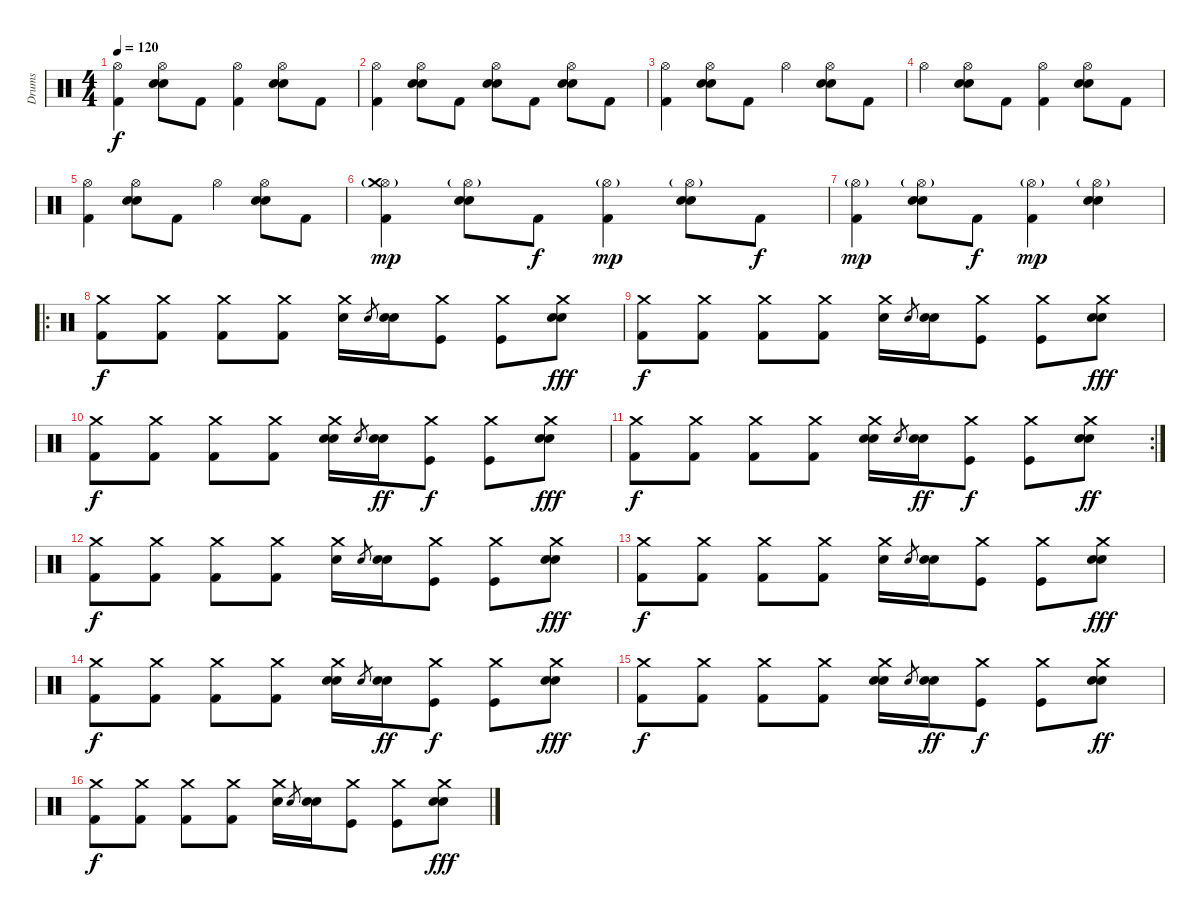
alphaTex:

\track ("Drums" "Drums") {instrument percussion}
\staff {score}
\articulation defaults
\ts (4 4)
\tempo 120
\clef neutral
\ks c
("Hi-Hat (open)" "Kick (hit) 2").4{dy f} ("Electric Snare (hit)" "Snare (hit) 2" "Hi-Hat (open)").8 "Kick (hit) 2".8 ("Hi-Hat (open)" "Kick (hit) 2").4 ("Electric Snare (hit)" "Snare (hit) 2" "Hi-Hat (open)").8 "Kick (hit) 2".8 |
("Hi-Hat (open)" "Kick (hit) 2").4 ("Electric Snare (hit)" "Snare (hit) 2" "Hi-Hat (open)").8 "Kick (hit) 2".8 ("Electric Snare (hit)" "Snare (hit) 2" "Hi-Hat (open)").8 "Kick (hit) 2".8 ("Electric Snare (hit)" "Snare (hit) 2" "Hi-Hat (open)").8 "Kick (hit) 2".8 |
("Hi-Hat (open)" "Kick (hit) 2").4 ("Electric Snare (hit)" "Snare (hit) 2" "Hi-Hat (open)").8 "Kick (hit) 2".8 "Hi-Hat (open)".4 ("Electric Snare (hit)" "Snare (hit) 2" "Hi-Hat (open)").8 "Kick (hit) 2".8 |
"Hi-Hat (open)".4 ("Hi-Hat (open)" "Electric Snare (hit)" "Snare (hit) 2").8 "Kick (hit) 2".8 ("Hi-Hat (open)" "Kick (hit) 2").4 ("Electric Snare (hit)" "Snare (hit) 2" "Hi-Hat (open)").8 "Kick (hit) 2".8 |
("Hi-Hat (open)" "Kick (hit) 2").4 ("Electric Snare (hit)" "Snare (hit) 2" "Hi-Hat (open)").8 "Kick (hit) 2".8 "Hi-Hat (open)".4 ("Electric Snare (hit)" "Snare (hit) 2" "Hi-Hat (open)").8 "Kick (hit) 2".8 |
("Hi-Hat (open)"{g} "Crash medium (hit)" "Kick (hit) 2").4{dy mp} ("Electric Snare (hit)" "Snare (hit) 2" "Hi-Hat (open)"{g}).8 "Kick (hit) 2".8{dy f} ("Hi-Hat (open)"{g} "Kick (hit) 2").4{dy mp} ("Electric Snare (hit)" "Snare (hit) 2" "Hi-Hat (open)"{g}).8 "Kick (hit) 2".8{dy f} |
("Hi-Hat (open)"{g} "Kick (hit) 2").4{dy mp} ("Electric Snare (hit)" "Snare (hit) 2" "Hi-Hat (open)"{g}).8 "Kick (hit) 2".8{dy f} ("Hi-Hat (open)"{g} "Kick (hit) 2").4{dy mp} ("Electric Snare (hit)" "Snare (hit) 2" "Hi-Hat (open)"{g}).4 |
\ro
("Crash medium (hit)" "Kick (hit) 2").8{dy f} ("Crash medium (hit)" "Kick (hit) 2").8 ("Crash medium (hit)" "Kick (hit) 2").8 ("Crash medium (hit)" "Kick (hit) 2").8 ("Crash medium (hit)" "Electric Snare (hit)").16 "Electric Snare (hit)".8{gr} ("Electric Snare (hit)" "Snare (hit) 2").16 ("Crash medium (hit)" "Kick (hit)").8 ("Crash medium (hit)" "Kick (hit)").8 ("Crash medium (hit)" "Electric Snare (hit)" "Snare (hit) 2").8{dy fff} |
("Crash medium (hit)" "Kick (hit) 2").8{dy f} ("Crash medium (hit)" "Kick (hit) 2").8 ("Crash medium (hit)" "Kick (hit) 2").8 ("Crash medium (hit)" "Kick (hit) 2").8 ("Crash medium (hit)" "Electric Snare (hit)").16 "Electric Snare (hit)".8{gr} ("Electric Snare (hit)" "Snare (hit) 2").16 ("Crash medium (hit)" "Kick (hit)").8 ("Crash medium (hit)" "Kick (hit)").8 ("Crash medium (hit)" "Electric Snare (hit)" "Snare (hit) 2").8{dy fff} |
("Crash medium (hit)" "Kick (hit) 2").8{dy f} ("Crash medium (hit)" "Kick (hit) 2").8 ("Crash medium (hit)" "Kick (hit) 2").8 ("Crash medium (hit)" "Kick (hit) 2").8 ("Crash medium (hit)" "Electric Snare (hit)" "Snare (hit) 2").16 "Electric Snare (hit)".8{gr} ("Electric Snare (hit)" "Snare (hit) 2").16{dy ff} ("Crash medium (hit)" "Kick (hit)").8{dy f} ("Crash medium (hit)" "Kick (hit)").8 ("Crash medium (hit)" "Electric Snare (hit)" "Snare (hit) 2").8{dy fff} |
\rc 2
("Crash medium (hit)" "Kick (hit) 2").8{dy f} ("Crash medium (hit)" "Kick (hit) 2").8 ("Crash medium (hit)" "Kick (hit) 2").8 ("Crash medium (hit)" "Kick (hit) 2").8 ("Crash medium (hit)" "Electric Snare (hit)" "Snare (hit) 2").16 "Electric Snare (hit)".8{gr} ("Electric Snare (hit)" "Snare (hit) 2").16{dy ff} ("Crash medium (hit)" "Kick (hit)").8{dy f} ("Crash medium (hit)" "Kick (hit)").8 ("Crash medium (hit)" "Electric Snare (hit)" "Snare (hit) 2").8{dy ff} |
("Crash medium (hit)" "Kick (hit) 2").8{dy f} ("Crash medium (hit)" "Kick (hit) 2").8 ("Crash medium (hit)" "Kick (hit) 2").8 ("Crash medium (hit)" "Kick (hit) 2").8 ("Crash medium (hit)" "Electric Snare (hit)").16 "Electric Snare (hit)".8{gr} ("Electric Snare (hit)" "Snare (hit) 2").16 ("Crash medium (hit)" "Kick (hit)").8 ("Crash medium (hit)" "Kick (hit)").8 ("Crash medium (hit)" "Electric Snare (hit)" "Snare (hit) 2").8{dy fff} |
("Crash medium (hit)" "Kick (hit) 2").8{dy f} ("Crash medium (hit)" "Kick (hit) 2").8 ("Crash medium (hit)" "Kick (hit) 2").8 ("Crash medium (hit)" "Kick (hit) 2").8 ("Crash medium (hit)" "Electric Snare (hit)").16 "Electric Snare (hit)".8{gr} ("Electric Snare (hit)" "Snare (hit) 2").16 ("Crash medium (hit)" "Kick (hit)").8 ("Crash medium (hit)" "Kick (hit)").8 ("Crash medium (hit)" "Electric Snare (hit)" "Snare (hit) 2").8{dy fff} |
("Crash medium (hit)" "Kick (hit) 2").8{dy f} ("Crash medium (hit)" "Kick (hit) 2").8 ("Crash medium (hit)" "Kick (hit) 2").8 ("Crash medium (hit)" "Kick (hit) 2").8 ("Crash medium (hit)" "Electric Snare (hit)" "Snare (hit) 2").16 "Electric Snare (hit)".8{gr} ("Electric Snare (hit)" "Snare (hit) 2").16{dy ff} ("Crash medium (hit)" "Kick (hit)").8{dy f} ("Crash medium (hit)" "Kick (hit)").8 ("Crash medium (hit)" "Electric Snare (hit)" "Snare (hit) 2").8{dy fff} |
("Crash medium (hit)" "Kick (hit) 2").8{dy f} ("Crash medium (hit)" "Kick (hit) 2").8 ("Crash medium (hit)" "Kick (hit) 2").8 ("Crash medium (hit)" "Kick (hit) 2").8 ("Crash medium (hit)" "Electric Snare (hit)" "Snare (hit) 2").16 "Electric Snare (hit)".8{gr} ("Electric Snare (hit)" "Snare (hit) 2").16{dy ff} ("Crash medium (hit)" "Kick (hit)").8{dy f} ("Crash medium (hit)" "Kick (hit)").8 ("Crash medium (hit)" "Electric Snare (hit)" "Snare (hit) 2").8{dy ff} |
("Crash medium (hit)" "Kick (hit) 2").8{dy f} ("Crash medium (hit)" "Kick (hit) 2").8 ("Crash medium (hit)" "Kick (hit) 2").8 ("Crash medium (hit)" "Kick (hit) 2").8 ("Crash medium (hit)" "Electric Snare (hit)").16 "Electric Snare (hit)".8{gr} ("Electric Snare (hit)" "Snare (hit) 2").16 ("Crash medium (hit)" "Kick (hit)").8 ("Crash medium (hit)" "Kick (hit)").8 ("Crash medium (hit)" "Electric Snare (hit)" "Snare (hit) 2").8{dy fff}
